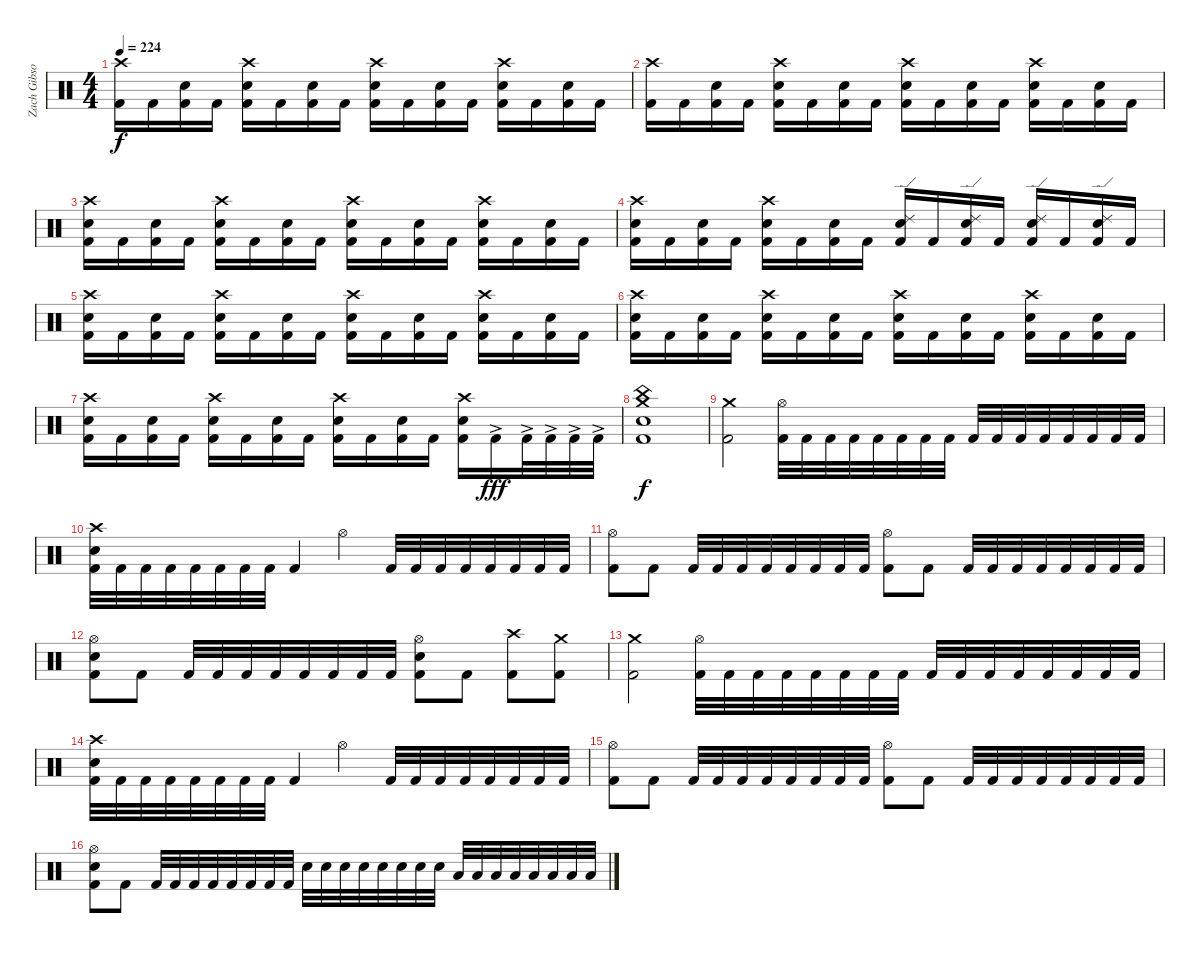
\track ("Zach Gibson (Drums)" "Zach Gibso") {instrument percussion}
\staff {score}
\articulation defaults
\ts (4 4)
\tempo 224
\clef neutral
\ks c
("Crash high (hit)" "Kick (hit) 2").16{dy f} "Kick (hit) 2".16 ("Snare (hit) 2" "Kick (hit) 2").16 "Kick (hit) 2".16 ("Kick (hit) 2" "Crash high (hit)" "Snare (hit) 2").16 "Kick (hit) 2".16 ("Snare (hit) 2" "Kick (hit) 2").16 "Kick (hit) 2".16 ("Kick (hit) 2" "Crash high (hit)" "Snare (hit) 2").16 "Kick (hit) 2".16 ("Snare (hit) 2" "Kick (hit) 2").16 "Kick (hit) 2".16 ("Kick (hit) 2" "Crash high (hit)" "Snare (hit) 2").16 "Kick (hit) 2".16 ("Snare (hit) 2" "Kick (hit) 2").16 "Kick (hit) 2".16 |
("Crash high (hit)" "Kick (hit) 2").16 "Kick (hit) 2".16 ("Snare (hit) 2" "Kick (hit) 2").16 "Kick (hit) 2".16 ("Kick (hit) 2" "Crash high (hit)" "Snare (hit) 2").16 "Kick (hit) 2".16 ("Snare (hit) 2" "Kick (hit) 2").16 "Kick (hit) 2".16 ("Kick (hit) 2" "Crash high (hit)" "Snare (hit) 2").16 "Kick (hit) 2".16 ("Snare (hit) 2" "Kick (hit) 2").16 "Kick (hit) 2".16 ("Kick (hit) 2" "Crash high (hit)" "Snare (hit) 2").16 "Kick (hit) 2".16 ("Snare (hit) 2" "Kick (hit) 2").16 "Kick (hit) 2".16 |
("Crash high (hit)" "Snare (hit) 2" "Kick (hit) 2").16 "Kick (hit) 2".16 ("Snare (hit) 2" "Kick (hit) 2").16 "Kick (hit) 2".16 ("Kick (hit) 2" "Crash high (hit)" "Snare (hit) 2").16 "Kick (hit) 2".16 ("Snare (hit) 2" "Kick (hit) 2").16 "Kick (hit) 2".16 ("Kick (hit) 2" "Crash high (hit)" "Snare (hit) 2").16 "Kick (hit) 2".16 ("Snare (hit) 2" "Kick (hit) 2").16 "Kick (hit) 2".16 ("Kick (hit) 2" "Crash high (hit)" "Snare (hit) 2").16 "Kick (hit) 2".16 ("Snare (hit) 2" "Kick (hit) 2").16 "Kick (hit) 2".16 |
("Crash high (hit)" "Snare (hit) 2" "Kick (hit) 2").16 "Kick (hit) 2".16 ("Snare (hit) 2" "Kick (hit) 2").16 "Kick (hit) 2".16 ("Kick (hit) 2" "Crash high (hit)" "Snare (hit) 2").16 "Kick (hit) 2".16 ("Snare (hit) 2" "Kick (hit) 2").16 "Kick (hit) 2".16 ("Kick (hit) 2" "Ride (edge) 2" "Snare (hit) 2").16 "Kick (hit) 2".16 ("Snare (hit) 2" "Ride (edge) 2" "Kick (hit) 2").16 "Kick (hit) 2".16 ("Kick (hit) 2" "Ride (edge) 2" "Snare (hit) 2").16 "Kick (hit) 2".16 ("Snare (hit) 2" "Ride (edge) 2" "Kick (hit) 2").16 "Kick (hit) 2".16 |
("Crash high (hit)" "Snare (hit) 2" "Kick (hit) 2").16 "Kick (hit) 2".16 ("Snare (hit) 2" "Kick (hit) 2").16 "Kick (hit) 2".16 ("Kick (hit) 2" "Crash high (hit)" "Snare (hit) 2").16 "Kick (hit) 2".16 ("Snare (hit) 2" "Kick (hit) 2").16 "Kick (hit) 2".16 ("Kick (hit) 2" "Crash high (hit)" "Snare (hit) 2").16 "Kick (hit) 2".16 ("Snare (hit) 2" "Kick (hit) 2").16 "Kick (hit) 2".16 ("Kick (hit) 2" "Crash high (hit)" "Snare (hit) 2").16 "Kick (hit) 2".16 ("Snare (hit) 2" "Kick (hit) 2").16 "Kick (hit) 2".16 |
("Crash high (hit)" "Snare (hit) 2" "Kick (hit) 2").16 "Kick (hit) 2".16 ("Snare (hit) 2" "Kick (hit) 2").16 "Kick (hit) 2".16 ("Kick (hit) 2" "Crash high (hit)" "Snare (hit) 2").16 "Kick (hit) 2".16 ("Snare (hit) 2" "Kick (hit) 2").16 "Kick (hit) 2".16 ("Kick (hit) 2" "Crash high (hit)" "Snare (hit) 2").16 "Kick (hit) 2".16 ("Snare (hit) 2" "Kick (hit) 2").16 "Kick (hit) 2".16 ("Kick (hit) 2" "Crash high (hit)" "Snare (hit) 2").16 "Kick (hit) 2".16 ("Snare (hit) 2" "Kick (hit) 2").16 "Kick (hit) 2".16 |
("Crash high (hit)" "Snare (hit) 2" "Kick (hit) 2").16 "Kick (hit) 2".16 ("Snare (hit) 2" "Kick (hit) 2").16 "Kick (hit) 2".16 ("Kick (hit) 2" "Crash high (hit)" "Snare (hit) 2").16 "Kick (hit) 2".16 ("Snare (hit) 2" "Kick (hit) 2").16 "Kick (hit) 2".16 ("Kick (hit) 2" "Crash high (hit)" "Snare (hit) 2").16 "Kick (hit) 2".16 ("Snare (hit) 2" "Kick (hit) 2").16 "Kick (hit) 2".16 ("Kick (hit) 2" "Crash high (hit)" "Snare (hit) 2").16 "Kick (hit) 2"{ac}.16{dy fff} "Kick (hit) 2"{ac}.32 "Kick (hit) 2"{ac}.32 "Kick (hit) 2"{ac}.32 "Kick (hit) 2"{ac}.32 |
("China (hit)" "Crash medium (hit)" "Snare (hit) 2" "Kick (hit) 2").1{dy f} |
("Crash medium (hit)" "Kick (hit) 2").2 ("Hi-Hat (open)" "Kick (hit) 2").32 "Kick (hit) 2".32 "Kick (hit) 2".32 "Kick (hit) 2".32 "Kick (hit) 2".32 "Kick (hit) 2".32 "Kick (hit) 2".32 "Kick (hit) 2".32 "Kick (hit) 2".32 "Kick (hit) 2".32 "Kick (hit) 2".32 "Kick (hit) 2".32 "Kick (hit) 2".32 "Kick (hit) 2".32 "Kick (hit) 2".32 "Kick (hit) 2".32 |
("Kick (hit) 2" "Crash high (hit)" "Snare (hit) 2").32 "Kick (hit) 2".32 "Kick (hit) 2".32 "Kick (hit) 2".32 "Kick (hit) 2".32 "Kick (hit) 2".32 "Kick (hit) 2".32 "Kick (hit) 2".32 "Kick (hit) 2".4 "Hi-Hat (open)".4 "Kick (hit) 2".32 "Kick (hit) 2".32 "Kick (hit) 2".32 "Kick (hit) 2".32 "Kick (hit) 2".32 "Kick (hit) 2".32 "Kick (hit) 2".32 "Kick (hit) 2".32 |
("Hi-Hat (open)" "Kick (hit) 2").8 "Kick (hit) 2".8 "Kick (hit) 2".32 "Kick (hit) 2".32 "Kick (hit) 2".32 "Kick (hit) 2".32 "Kick (hit) 2".32 "Kick (hit) 2".32 "Kick (hit) 2".32 "Kick (hit) 2".32 ("Hi-Hat (open)" "Kick (hit) 2").8 "Kick (hit) 2".8 "Kick (hit) 2".32 "Kick (hit) 2".32 "Kick (hit) 2".32 "Kick (hit) 2".32 "Kick (hit) 2".32 "Kick (hit) 2".32 "Kick (hit) 2".32 "Kick (hit) 2".32 |
("Snare (hit) 2" "Hi-Hat (open)" "Kick (hit) 2").8 "Kick (hit) 2".8 "Kick (hit) 2".32 "Kick (hit) 2".32 "Kick (hit) 2".32 "Kick (hit) 2".32 "Kick (hit) 2".32 "Kick (hit) 2".32 "Kick (hit) 2".32 "Kick (hit) 2".32 ("Snare (hit) 2" "Hi-Hat (open)" "Kick (hit) 2").8 "Kick (hit) 2".8 ("Crash high (hit)" "Kick (hit) 2").8 ("Crash medium (hit)" "Kick (hit) 2").8 |
("Crash medium (hit)" "Kick (hit) 2").2 ("Hi-Hat (open)" "Kick (hit) 2").32 "Kick (hit) 2".32 "Kick (hit) 2".32 "Kick (hit) 2".32 "Kick (hit) 2".32 "Kick (hit) 2".32 "Kick (hit) 2".32 "Kick (hit) 2".32 "Kick (hit) 2".32 "Kick (hit) 2".32 "Kick (hit) 2".32 "Kick (hit) 2".32 "Kick (hit) 2".32 "Kick (hit) 2".32 "Kick (hit) 2".32 "Kick (hit) 2".32 |
("Kick (hit) 2" "Crash high (hit)" "Snare (hit) 2").32 "Kick (hit) 2".32 "Kick (hit) 2".32 "Kick (hit) 2".32 "Kick (hit) 2".32 "Kick (hit) 2".32 "Kick (hit) 2".32 "Kick (hit) 2".32 "Kick (hit) 2".4 "Hi-Hat (open)".4 "Kick (hit) 2".32 "Kick (hit) 2".32 "Kick (hit) 2".32 "Kick (hit) 2".32 "Kick (hit) 2".32 "Kick (hit) 2".32 "Kick (hit) 2".32 "Kick (hit) 2".32 |
("Hi-Hat (open)" "Kick (hit) 2").8 "Kick (hit) 2".8 "Kick (hit) 2".32 "Kick (hit) 2".32 "Kick (hit) 2".32 "Kick (hit) 2".32 "Kick (hit) 2".32 "Kick (hit) 2".32 "Kick (hit) 2".32 "Kick (hit) 2".32 ("Hi-Hat (open)" "Kick (hit) 2").8 "Kick (hit) 2".8 "Kick (hit) 2".32 "Kick (hit) 2".32 "Kick (hit) 2".32 "Kick (hit) 2".32 "Kick (hit) 2".32 "Kick (hit) 2".32 "Kick (hit) 2".32 "Kick (hit) 2".32 |
("Snare (hit) 2" "Hi-Hat (open)" "Kick (hit) 2").8 "Kick (hit) 2".8 "Kick (hit) 2".32 "Kick (hit) 2".32 "Kick (hit) 2".32 "Kick (hit) 2".32 "Kick (hit) 2".32 "Kick (hit) 2".32 "Kick (hit) 2".32 "Kick (hit) 2".32 "Snare (hit) 2".32 "Snare (hit) 2".32 "Snare (hit) 2".32 "Snare (hit) 2".32 "Snare (hit) 2".32 "Snare (hit) 2".32 "Snare (hit) 2".32 "Snare (hit) 2".32 "Low Tom (hit)".32 "Low Tom (hit)".32 "Low Tom (hit)".32 "Low Tom (hit)".32 "Low Tom (hit)".32 "Low Tom (hit)".32 "Low Tom (hit)".32 "Low Tom (hit)".32
